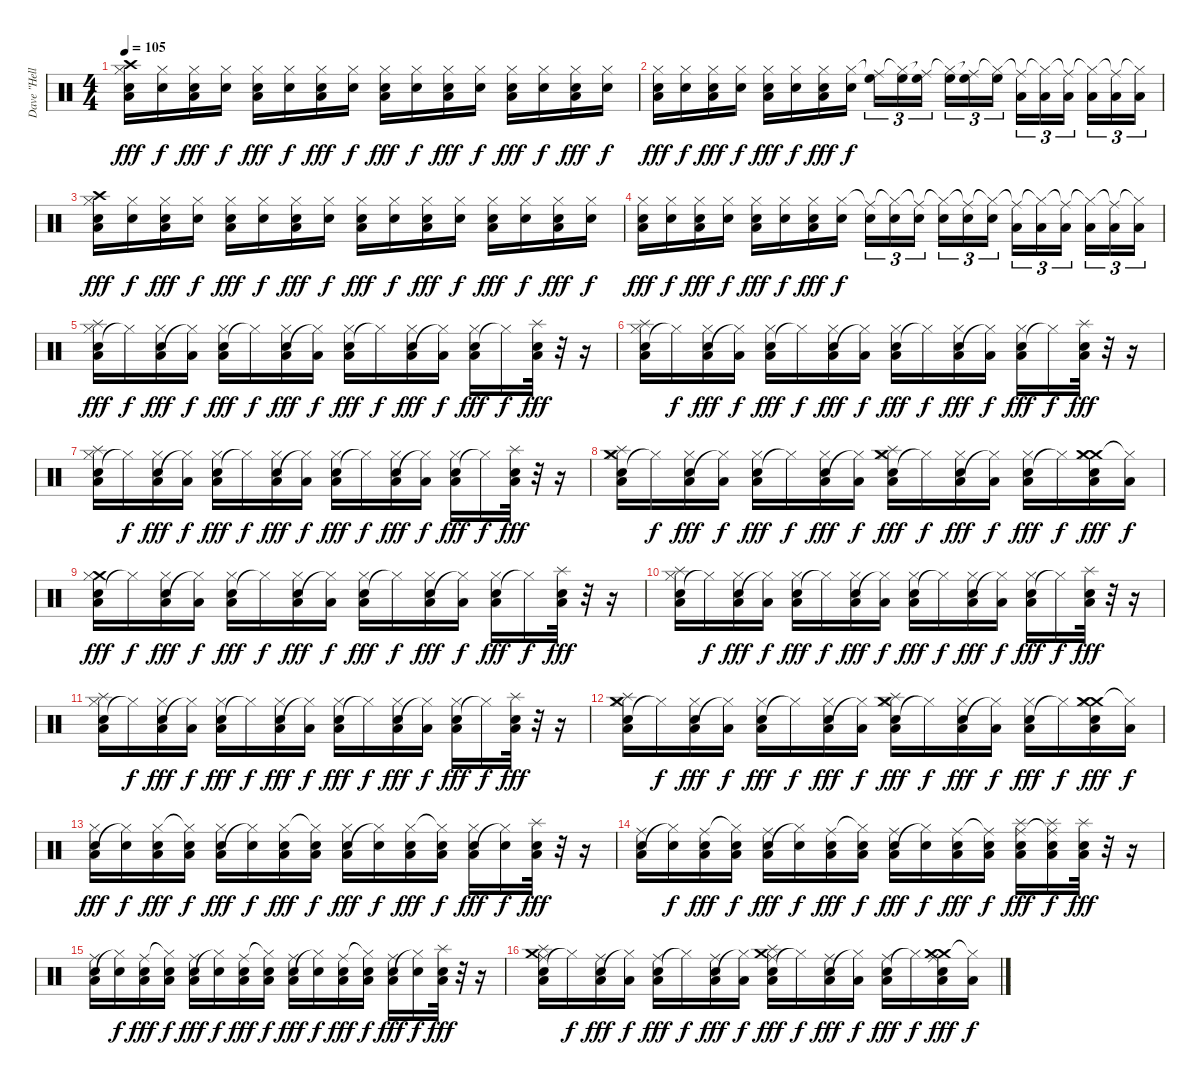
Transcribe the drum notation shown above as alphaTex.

\track ("Dave \"Hellstorm\" Chiarella" "Dave \"Hell") {solo instrument percussion}
\staff {score}
\articulation defaults
\ts (4 4)
\tempo 105
\clef neutral
\ks c
("Electric Snare (hit)" "Crash high (hit)" "Low Floor Tom (hit)" "Hi-Hat (closed)").16{dy fff} ("Electric Snare (hit)" "Hi-Hat (closed)").16{dy f} ("Electric Snare (hit)" "Low Floor Tom (hit)" "Hi-Hat (closed)").16{dy fff} ("Electric Snare (hit)" "Hi-Hat (closed)").16{dy f} ("Electric Snare (hit)" "Low Floor Tom (hit)" "Hi-Hat (closed)").16{dy fff} ("Electric Snare (hit)" "Hi-Hat (closed)").16{dy f} ("Electric Snare (hit)" "Low Floor Tom (hit)" "Hi-Hat (closed)").16{dy fff} ("Electric Snare (hit)" "Hi-Hat (closed)").16{dy f} ("Electric Snare (hit)" "Low Floor Tom (hit)" "Hi-Hat (closed)").16{dy fff} ("Electric Snare (hit)" "Hi-Hat (closed)").16{dy f} ("Electric Snare (hit)" "Low Floor Tom (hit)" "Hi-Hat (closed)").16{dy fff} ("Electric Snare (hit)" "Hi-Hat (closed)").16{dy f} ("Electric Snare (hit)" "Low Floor Tom (hit)" "Hi-Hat (closed)").16{dy fff} ("Electric Snare (hit)" "Hi-Hat (closed)").16{dy f} ("Electric Snare (hit)" "Low Floor Tom (hit)" "Hi-Hat (closed)").16{dy fff} ("Electric Snare (hit)" "Hi-Hat (closed)").16{dy f} |
("Electric Snare (hit)" "Low Floor Tom (hit)" "Hi-Hat (closed)").16{dy fff} ("Electric Snare (hit)" "Hi-Hat (closed)").16{dy f} ("Electric Snare (hit)" "Low Floor Tom (hit)" "Hi-Hat (closed)").16{dy fff} ("Electric Snare (hit)" "Hi-Hat (closed)").16{dy f} ("Electric Snare (hit)" "Low Floor Tom (hit)" "Hi-Hat (closed)").16{dy fff} ("Electric Snare (hit)" "Hi-Hat (closed)").16{dy f} ("Electric Snare (hit)" "Low Floor Tom (hit)" "Hi-Hat (closed)").16{dy fff} ("Electric Snare (hit)" "Hi-Hat (closed)").16{dy f} ("High Floor Tom (hit)" "Ride (middle)"{t}).16{tu (3 2)} ("High Floor Tom (hit)" "Hi-Hat (closed)"{t}).16{tu (3 2)} ("High Floor Tom (hit)" "Ride (middle)"{t}).16{tu (3 2) beam splitsecondary} ("High Floor Tom (hit)" "Hi-Hat (closed)"{t}).16{tu (3 2)} ("High Floor Tom (hit)" "Ride (middle)"{t}).16{tu (3 2)} ("High Floor Tom (hit)" "Hi-Hat (closed)"{t}).16{tu (3 2)} ("Low Tom (hit)" "Ride (middle)"{t}).16{tu (3 2)} ("Low Tom (hit)" "Hi-Hat (closed)"{t}).16{tu (3 2)} ("Low Tom (hit)" "Ride (middle)"{t}).16{tu (3 2) beam splitsecondary} ("Low Tom (hit)" "Hi-Hat (closed)"{t}).16{tu (3 2)} ("Low Tom (hit)" "Ride (middle)"{t}).16{tu (3 2)} ("Low Tom (hit)" "Hi-Hat (closed)"{t}).16{tu (3 2)} |
("Electric Snare (hit)" "Crash high (hit)" "Low Floor Tom (hit)" "Hi-Hat (closed)").16{dy fff} ("Electric Snare (hit)" "Hi-Hat (closed)").16{dy f} ("Electric Snare (hit)" "Low Floor Tom (hit)" "Hi-Hat (closed)").16{dy fff} ("Electric Snare (hit)" "Hi-Hat (closed)").16{dy f} ("Electric Snare (hit)" "Low Floor Tom (hit)" "Hi-Hat (closed)").16{dy fff} ("Electric Snare (hit)" "Hi-Hat (closed)").16{dy f} ("Electric Snare (hit)" "Low Floor Tom (hit)" "Hi-Hat (closed)").16{dy fff} ("Electric Snare (hit)" "Hi-Hat (closed)").16{dy f} ("Electric Snare (hit)" "Low Floor Tom (hit)" "Hi-Hat (closed)").16{dy fff} ("Electric Snare (hit)" "Hi-Hat (closed)").16{dy f} ("Electric Snare (hit)" "Low Floor Tom (hit)" "Hi-Hat (closed)").16{dy fff} ("Electric Snare (hit)" "Hi-Hat (closed)").16{dy f} ("Electric Snare (hit)" "Low Floor Tom (hit)" "Hi-Hat (closed)").16{dy fff} ("Electric Snare (hit)" "Hi-Hat (closed)").16{dy f} ("Electric Snare (hit)" "Low Floor Tom (hit)" "Hi-Hat (closed)").16{dy fff} ("Electric Snare (hit)" "Hi-Hat (closed)").16{dy f} |
("Electric Snare (hit)" "Low Floor Tom (hit)" "Hi-Hat (closed)").16{dy fff} ("Electric Snare (hit)" "Hi-Hat (closed)").16{dy f} ("Electric Snare (hit)" "Low Floor Tom (hit)" "Hi-Hat (closed)").16{dy fff} ("Electric Snare (hit)" "Hi-Hat (closed)").16{dy f} ("Electric Snare (hit)" "Low Floor Tom (hit)" "Hi-Hat (closed)").16{dy fff} ("Electric Snare (hit)" "Hi-Hat (closed)").16{dy f} ("Electric Snare (hit)" "Low Floor Tom (hit)" "Hi-Hat (closed)").16{dy fff} ("Electric Snare (hit)" "Hi-Hat (closed)").16{dy f} ("Electric Snare (hit)" "Ride (middle)"{t}).16{tu (3 2)} ("Electric Snare (hit)" "Hi-Hat (closed)"{t}).16{tu (3 2)} ("Electric Snare (hit)" "Ride (middle)"{t}).16{tu (3 2) beam splitsecondary} ("Electric Snare (hit)" "Hi-Hat (closed)"{t}).16{tu (3 2)} ("Electric Snare (hit)" "Ride (middle)"{t}).16{tu (3 2)} ("Electric Snare (hit)" "Hi-Hat (closed)"{t}).16{tu (3 2)} ("Low Tom (hit)" "Ride (middle)"{t}).16{tu (3 2)} ("Low Tom (hit)" "Hi-Hat (closed)"{t}).16{tu (3 2)} ("Low Tom (hit)" "Ride (middle)"{t}).16{tu (3 2) beam splitsecondary} ("Low Tom (hit)" "Hi-Hat (closed)"{t}).16{tu (3 2)} ("Low Tom (hit)" "Ride (middle)"{t}).16{tu (3 2)} ("Low Tom (hit)" "Hi-Hat (closed)"{t}).16{tu (3 2)} |
("Electric Snare (hit)" "Splash (hit)" "Low Floor Tom (hit)" "Hi-Hat (closed)").16{dy fff} "Hi-Hat (closed)"{t}.16{dy f} ("Electric Snare (hit)" "Low Floor Tom (hit)" "Hi-Hat (closed)").16{dy fff} ("Low Floor Tom (hit)" "Hi-Hat (closed)"{t}).16{dy f} ("Electric Snare (hit)" "Low Floor Tom (hit)" "Hi-Hat (closed)").16{dy fff} "Hi-Hat (closed)"{t}.16{dy f} ("Electric Snare (hit)" "Low Floor Tom (hit)" "Hi-Hat (closed)").16{dy fff} ("Low Floor Tom (hit)" "Hi-Hat (closed)"{t}).16{dy f} ("Electric Snare (hit)" "Low Floor Tom (hit)" "Hi-Hat (closed)").16{dy fff} "Hi-Hat (closed)"{t}.16{dy f} ("Electric Snare (hit)" "Low Floor Tom (hit)" "Hi-Hat (closed)").16{dy fff} ("Low Floor Tom (hit)" "Hi-Hat (closed)"{t}).16{dy f} ("Electric Snare (hit)" "Low Floor Tom (hit)" "Hi-Hat (closed)").16{dy fff} "Hi-Hat (closed)"{t}.16{dy f} ("Electric Snare (hit)" "Splash (hit)" "Low Floor Tom (hit)").32{dy fff} r.32 r.16 |
("Electric Snare (hit)" "Splash (hit)" "Low Floor Tom (hit)" "Hi-Hat (closed)").16 "Hi-Hat (closed)"{t}.16{dy f} ("Electric Snare (hit)" "Low Floor Tom (hit)" "Hi-Hat (closed)").16{dy fff} ("Low Floor Tom (hit)" "Hi-Hat (closed)"{t}).16{dy f} ("Electric Snare (hit)" "Low Floor Tom (hit)" "Hi-Hat (closed)").16{dy fff} "Hi-Hat (closed)"{t}.16{dy f} ("Electric Snare (hit)" "Low Floor Tom (hit)" "Hi-Hat (closed)").16{dy fff} ("Low Floor Tom (hit)" "Hi-Hat (closed)"{t}).16{dy f} ("Electric Snare (hit)" "Low Floor Tom (hit)" "Hi-Hat (closed)").16{dy fff} "Hi-Hat (closed)"{t}.16{dy f} ("Electric Snare (hit)" "Low Floor Tom (hit)" "Hi-Hat (closed)").16{dy fff} ("Low Floor Tom (hit)" "Hi-Hat (closed)"{t}).16{dy f} ("Electric Snare (hit)" "Low Floor Tom (hit)" "Hi-Hat (closed)").16{dy fff} "Hi-Hat (closed)"{t}.16{dy f} ("Electric Snare (hit)" "Splash (hit)" "Low Floor Tom (hit)").32{dy fff} r.32 r.16 |
("Electric Snare (hit)" "Splash (hit)" "Low Floor Tom (hit)" "Hi-Hat (closed)").16 "Hi-Hat (closed)"{t}.16{dy f} ("Electric Snare (hit)" "Low Floor Tom (hit)" "Hi-Hat (closed)").16{dy fff} ("Low Floor Tom (hit)" "Hi-Hat (closed)"{t}).16{dy f} ("Electric Snare (hit)" "Low Floor Tom (hit)" "Hi-Hat (closed)").16{dy fff} "Hi-Hat (closed)"{t}.16{dy f} ("Electric Snare (hit)" "Low Floor Tom (hit)" "Hi-Hat (closed)").16{dy fff} ("Low Floor Tom (hit)" "Hi-Hat (closed)"{t}).16{dy f} ("Electric Snare (hit)" "Low Floor Tom (hit)" "Hi-Hat (closed)").16{dy fff} "Hi-Hat (closed)"{t}.16{dy f} ("Electric Snare (hit)" "Low Floor Tom (hit)" "Hi-Hat (closed)").16{dy fff} ("Low Floor Tom (hit)" "Hi-Hat (closed)"{t}).16{dy f} ("Electric Snare (hit)" "Low Floor Tom (hit)" "Hi-Hat (closed)").16{dy fff} "Hi-Hat (closed)"{t}.16{dy f} ("Electric Snare (hit)" "Splash (hit)" "Low Floor Tom (hit)").32{dy fff} r.32 r.16 |
("Electric Snare (hit)" "Crash medium (hit)" "Splash (hit)" "Low Floor Tom (hit)" "Hi-Hat (closed)").16 "Hi-Hat (closed)"{t}.16{dy f} ("Electric Snare (hit)" "Low Floor Tom (hit)" "Hi-Hat (closed)").16{dy fff} ("Low Floor Tom (hit)" "Hi-Hat (closed)"{t}).16{dy f} ("Electric Snare (hit)" "Low Floor Tom (hit)" "Hi-Hat (closed)").16{dy fff} "Hi-Hat (closed)"{t}.16{dy f} ("Electric Snare (hit)" "Low Floor Tom (hit)" "Hi-Hat (closed)").16{dy fff} ("Low Floor Tom (hit)" "Hi-Hat (closed)"{t}).16{dy f} ("Electric Snare (hit)" "Crash medium (hit)" "Splash (hit)" "Low Floor Tom (hit)" "Hi-Hat (closed)").16{dy fff} "Hi-Hat (closed)"{t}.16{dy f} ("Electric Snare (hit)" "Low Floor Tom (hit)" "Hi-Hat (closed)").16{dy fff} ("Low Floor Tom (hit)" "Hi-Hat (closed)"{t}).16{dy f} ("Electric Snare (hit)" "Low Floor Tom (hit)" "Hi-Hat (closed)").16{dy fff} "Hi-Hat (closed)"{t}.16{dy f} ("Electric Snare (hit)" "Crash medium (hit)" "Crash medium (hit)" "Low Floor Tom (hit)" "Hi-Hat (closed)").16{dy fff} ("Low Floor Tom (hit)" "Hi-Hat (closed)"{t}).16{dy f} |
("Electric Snare (hit)" "Crash medium (hit)" "Low Floor Tom (hit)" "Hi-Hat (closed)").16{dy fff} "Hi-Hat (closed)"{t}.16{dy f} ("Electric Snare (hit)" "Low Floor Tom (hit)" "Hi-Hat (closed)").16{dy fff} ("Low Floor Tom (hit)" "Hi-Hat (closed)"{t}).16{dy f} ("Electric Snare (hit)" "Low Floor Tom (hit)" "Hi-Hat (closed)").16{dy fff} "Hi-Hat (closed)"{t}.16{dy f} ("Electric Snare (hit)" "Low Floor Tom (hit)" "Hi-Hat (closed)").16{dy fff} ("Low Floor Tom (hit)" "Hi-Hat (closed)"{t}).16{dy f} ("Electric Snare (hit)" "Low Floor Tom (hit)" "Hi-Hat (closed)").16{dy fff} "Hi-Hat (closed)"{t}.16{dy f} ("Electric Snare (hit)" "Low Floor Tom (hit)" "Hi-Hat (closed)").16{dy fff} ("Low Floor Tom (hit)" "Hi-Hat (closed)"{t}).16{dy f} ("Electric Snare (hit)" "Low Floor Tom (hit)" "Hi-Hat (closed)").16{dy fff} "Hi-Hat (closed)"{t}.16{dy f} ("Electric Snare (hit)" "Splash (hit)" "Low Floor Tom (hit)").32{dy fff} r.32 r.16 |
("Electric Snare (hit)" "Splash (hit)" "Low Floor Tom (hit)" "Hi-Hat (closed)").16 "Hi-Hat (closed)"{t}.16{dy f} ("Electric Snare (hit)" "Low Floor Tom (hit)" "Hi-Hat (closed)").16{dy fff} ("Low Floor Tom (hit)" "Hi-Hat (closed)"{t}).16{dy f} ("Electric Snare (hit)" "Low Floor Tom (hit)" "Hi-Hat (closed)").16{dy fff} "Hi-Hat (closed)"{t}.16{dy f} ("Electric Snare (hit)" "Low Floor Tom (hit)" "Hi-Hat (closed)").16{dy fff} ("Low Floor Tom (hit)" "Hi-Hat (closed)"{t}).16{dy f} ("Electric Snare (hit)" "Low Floor Tom (hit)" "Hi-Hat (closed)").16{dy fff} "Hi-Hat (closed)"{t}.16{dy f} ("Electric Snare (hit)" "Low Floor Tom (hit)" "Hi-Hat (closed)").16{dy fff} ("Low Floor Tom (hit)" "Hi-Hat (closed)"{t}).16{dy f} ("Electric Snare (hit)" "Low Floor Tom (hit)" "Hi-Hat (closed)").16{dy fff} "Hi-Hat (closed)"{t}.16{dy f} ("Electric Snare (hit)" "Splash (hit)" "Low Floor Tom (hit)").32{dy fff} r.32 r.16 |
("Electric Snare (hit)" "Splash (hit)" "Low Floor Tom (hit)" "Hi-Hat (closed)").16 "Hi-Hat (closed)"{t}.16{dy f} ("Electric Snare (hit)" "Low Floor Tom (hit)" "Hi-Hat (closed)").16{dy fff} ("Low Floor Tom (hit)" "Hi-Hat (closed)"{t}).16{dy f} ("Electric Snare (hit)" "Low Floor Tom (hit)" "Hi-Hat (closed)").16{dy fff} "Hi-Hat (closed)"{t}.16{dy f} ("Electric Snare (hit)" "Low Floor Tom (hit)" "Hi-Hat (closed)").16{dy fff} ("Low Floor Tom (hit)" "Hi-Hat (closed)"{t}).16{dy f} ("Electric Snare (hit)" "Low Floor Tom (hit)" "Hi-Hat (closed)").16{dy fff} "Hi-Hat (closed)"{t}.16{dy f} ("Electric Snare (hit)" "Low Floor Tom (hit)" "Hi-Hat (closed)").16{dy fff} ("Low Floor Tom (hit)" "Hi-Hat (closed)"{t}).16{dy f} ("Electric Snare (hit)" "Low Floor Tom (hit)" "Hi-Hat (closed)").16{dy fff} "Hi-Hat (closed)"{t}.16{dy f} ("Electric Snare (hit)" "Splash (hit)" "Low Floor Tom (hit)").32{dy fff} r.32 r.16 |
("Electric Snare (hit)" "Crash medium (hit)" "Splash (hit)" "Low Floor Tom (hit)" "Hi-Hat (closed)").16 "Hi-Hat (closed)"{t}.16{dy f} ("Electric Snare (hit)" "Low Floor Tom (hit)" "Hi-Hat (closed)").16{dy fff} ("Low Floor Tom (hit)" "Hi-Hat (closed)"{t}).16{dy f} ("Electric Snare (hit)" "Low Floor Tom (hit)" "Hi-Hat (closed)").16{dy fff} "Hi-Hat (closed)"{t}.16{dy f} ("Electric Snare (hit)" "Low Floor Tom (hit)" "Hi-Hat (closed)").16{dy fff} ("Low Floor Tom (hit)" "Hi-Hat (closed)"{t}).16{dy f} ("Electric Snare (hit)" "Crash medium (hit)" "Splash (hit)" "Low Floor Tom (hit)" "Hi-Hat (closed)").16{dy fff} "Hi-Hat (closed)"{t}.16{dy f} ("Electric Snare (hit)" "Low Floor Tom (hit)" "Hi-Hat (closed)").16{dy fff} ("Low Floor Tom (hit)" "Hi-Hat (closed)"{t}).16{dy f} ("Electric Snare (hit)" "Low Floor Tom (hit)" "Hi-Hat (closed)").16{dy fff} "Hi-Hat (closed)"{t}.16{dy f} ("Electric Snare (hit)" "Crash medium (hit)" "Crash medium (hit)" "Low Floor Tom (hit)" "Hi-Hat (closed)").16{dy fff} ("Low Floor Tom (hit)" "Hi-Hat (closed)"{t}).16{dy f} |
("Electric Snare (hit)" "Low Floor Tom (hit)" "Hi-Hat (closed)").16{dy fff} ("Electric Snare (hit)" "Hi-Hat (closed)"{t}).16{dy f} ("Electric Snare (hit)" "Low Floor Tom (hit)" "Hi-Hat (closed)").16{dy fff} ("Electric Snare (hit)" "Low Floor Tom (hit)" "Hi-Hat (closed)"{t}).16{dy f} ("Electric Snare (hit)" "Low Floor Tom (hit)" "Hi-Hat (closed)").16{dy fff} ("Electric Snare (hit)" "Hi-Hat (closed)"{t}).16{dy f} ("Electric Snare (hit)" "Low Floor Tom (hit)" "Hi-Hat (closed)").16{dy fff} ("Electric Snare (hit)" "Low Floor Tom (hit)" "Hi-Hat (closed)"{t}).16{dy f} ("Electric Snare (hit)" "Low Floor Tom (hit)" "Hi-Hat (closed)").16{dy fff} ("Electric Snare (hit)" "Hi-Hat (closed)"{t}).16{dy f} ("Electric Snare (hit)" "Low Floor Tom (hit)" "Hi-Hat (closed)").16{dy fff} ("Electric Snare (hit)" "Low Floor Tom (hit)" "Hi-Hat (closed)"{t}).16{dy f} ("Electric Snare (hit)" "Low Floor Tom (hit)" "Hi-Hat (closed)").16{dy fff} ("Electric Snare (hit)" "Hi-Hat (closed)"{t}).16{dy f} ("Electric Snare (hit)" "Splash (hit)" "Low Floor Tom (hit)").32{dy fff} r.32 r.16 |
("Electric Snare (hit)" "Low Floor Tom (hit)" "Ride (middle)").16 ("Electric Snare (hit)" "Hi-Hat (closed)"{t}).16{dy f} ("Electric Snare (hit)" "Low Floor Tom (hit)" "Ride (middle)").16{dy fff} ("Electric Snare (hit)" "Low Floor Tom (hit)" "Hi-Hat (closed)"{t}).16{dy f} ("Electric Snare (hit)" "Low Floor Tom (hit)" "Ride (middle)").16{dy fff} ("Electric Snare (hit)" "Hi-Hat (closed)"{t}).16{dy f} ("Electric Snare (hit)" "Low Floor Tom (hit)" "Ride (middle)").16{dy fff} ("Electric Snare (hit)" "Low Floor Tom (hit)" "Hi-Hat (closed)"{t}).16{dy f} ("Electric Snare (hit)" "Low Floor Tom (hit)" "Ride (middle)").16{dy fff} ("Electric Snare (hit)" "Hi-Hat (closed)"{t}).16{dy f} ("Electric Snare (hit)" "Low Floor Tom (hit)" "Ride (middle)").16{dy fff} ("Electric Snare (hit)" "Low Floor Tom (hit)" "Ride (middle)"{t}).16{dy f} ("Electric Snare (hit)" "Splash (hit)" "Low Floor Tom (hit)" "Ride (middle)").16{dy fff} ("Electric Snare (hit)" "Splash (hit)" "Low Floor Tom (hit)" "Ride (middle)"{t}).16{dy f} ("Electric Snare (hit)" "Splash (hit)" "Low Floor Tom (hit)").32{dy fff} r.32 r.16 |
("Electric Snare (hit)" "Low Floor Tom (hit)" "Ride (middle)").16 ("Electric Snare (hit)" "Hi-Hat (closed)"{t}).16{dy f} ("Electric Snare (hit)" "Low Floor Tom (hit)" "Ride (middle)").16{dy fff} ("Electric Snare (hit)" "Low Floor Tom (hit)" "Hi-Hat (closed)"{t}).16{dy f} ("Electric Snare (hit)" "Low Floor Tom (hit)" "Ride (middle)").16{dy fff} ("Electric Snare (hit)" "Hi-Hat (closed)"{t}).16{dy f} ("Electric Snare (hit)" "Low Floor Tom (hit)" "Ride (middle)").16{dy fff} ("Electric Snare (hit)" "Low Floor Tom (hit)" "Hi-Hat (closed)"{t}).16{dy f} ("Electric Snare (hit)" "Low Floor Tom (hit)" "Ride (middle)").16{dy fff} ("Electric Snare (hit)" "Hi-Hat (closed)"{t}).16{dy f} ("Electric Snare (hit)" "Low Floor Tom (hit)" "Ride (middle)").16{dy fff} ("Electric Snare (hit)" "Low Floor Tom (hit)" "Hi-Hat (closed)"{t}).16{dy f} ("Electric Snare (hit)" "Low Floor Tom (hit)" "Ride (middle)").16{dy fff} ("Electric Snare (hit)" "Hi-Hat (closed)"{t}).16{dy f} ("Electric Snare (hit)" "Splash (hit)" "Low Floor Tom (hit)").32{dy fff} r.32 r.16 |
("Electric Snare (hit)" "Crash medium (hit)" "Splash (hit)" "Low Floor Tom (hit)" "Ride (middle)").16 "Hi-Hat (closed)"{t}.16{dy f} ("Electric Snare (hit)" "Low Floor Tom (hit)" "Ride (middle)").16{dy fff} ("Low Floor Tom (hit)" "Hi-Hat (closed)"{t}).16{dy f} ("Electric Snare (hit)" "Low Floor Tom (hit)" "Ride (middle)").16{dy fff} "Hi-Hat (closed)"{t}.16{dy f} ("Electric Snare (hit)" "Low Floor Tom (hit)" "Ride (middle)").16{dy fff} ("Low Floor Tom (hit)" "Hi-Hat (closed)"{t}).16{dy f} ("Electric Snare (hit)" "Crash medium (hit)" "Splash (hit)" "Low Floor Tom (hit)" "Ride (middle)").16{dy fff} "Hi-Hat (closed)"{t}.16{dy f} ("Electric Snare (hit)" "Low Floor Tom (hit)" "Ride (middle)").16{dy fff} ("Low Floor Tom (hit)" "Hi-Hat (closed)"{t}).16{dy f} ("Electric Snare (hit)" "Low Floor Tom (hit)" "Ride (middle)").16{dy fff} "Hi-Hat (closed)"{t}.16{dy f} ("Electric Snare (hit)" "Crash medium (hit)" "Crash medium (hit)" "Low Floor Tom (hit)" "Ride (middle)").16{dy fff} ("Low Floor Tom (hit)" "Hi-Hat (closed)"{t}).16{dy f}
